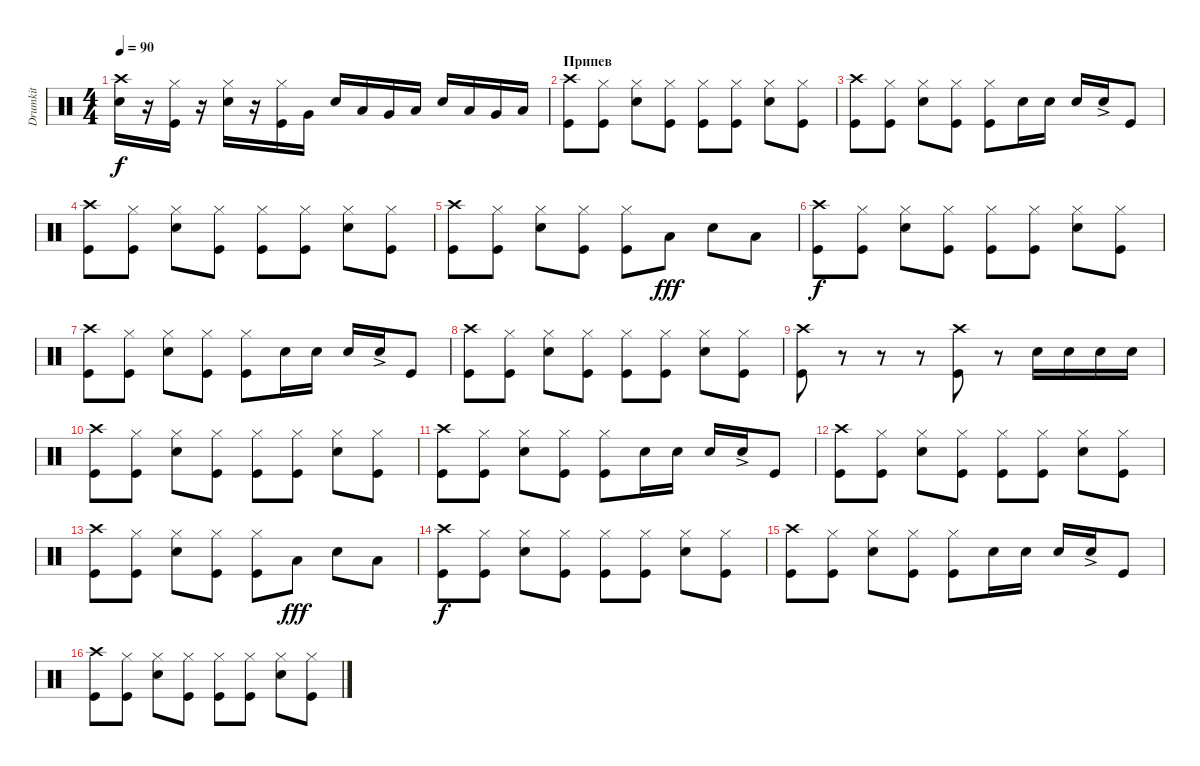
\track ("Drumkit" "Drumkit") {instrument percussion}
\staff {score}
\articulation defaults
\ts (4 4)
\tempo 90
\clef neutral
\ks c
("Crash high (hit)" "Snare (hit) 2").16{dy f} r.16 ("Hi-Hat (closed)" "Kick (hit)").16 r.16 ("Hi-Hat (closed)" "Snare (hit) 2").16 r.16 ("Hi-Hat (closed)" "Kick (hit)").16 "Very Low Tom (hit)".16 "Snare (hit) 2".16 "Low Tom (hit)".16 "Very Low Tom (hit)".16 "Low Tom (hit)".16 "Snare (hit) 2".16 "Low Tom (hit)".16 "Very Low Tom (hit)".16 "Low Floor Tom (hit)".16 |
\section ("" "Припев")
("Kick (hit)" "Crash high (hit)").8 ("Kick (hit)" "Hi-Hat (closed)").8 ("Snare (hit) 2" "Hi-Hat (closed)").8 ("Kick (hit)" "Hi-Hat (closed)").8 ("Kick (hit)" "Hi-Hat (closed)").8 ("Kick (hit)" "Hi-Hat (closed)").8 ("Snare (hit) 2" "Hi-Hat (closed)").8 ("Kick (hit)" "Hi-Hat (closed)").8 |
("Kick (hit)" "Crash high (hit)").8 ("Kick (hit)" "Hi-Hat (closed)").8 ("Snare (hit) 2" "Hi-Hat (closed)").8 ("Kick (hit)" "Hi-Hat (closed)").8 ("Kick (hit)" "Hi-Hat (closed)").8 "Snare (hit) 2".16 "Snare (hit) 2".16 "Snare (hit) 2".16 "Snare (hit) 2"{ac}.16 "Kick (hit)".8 |
("Kick (hit)" "Crash high (hit)").8 ("Kick (hit)" "Hi-Hat (closed)").8 ("Snare (hit) 2" "Hi-Hat (closed)").8 ("Kick (hit)" "Hi-Hat (closed)").8 ("Kick (hit)" "Hi-Hat (closed)").8 ("Kick (hit)" "Hi-Hat (closed)").8 ("Snare (hit) 2" "Hi-Hat (closed)").8 ("Kick (hit)" "Hi-Hat (closed)").8 |
("Kick (hit)" "Crash high (hit)").8 ("Kick (hit)" "Hi-Hat (closed)").8 ("Snare (hit) 2" "Hi-Hat (closed)").8 ("Kick (hit)" "Hi-Hat (closed)").8 ("Kick (hit)" "Hi-Hat (closed)").8 "Low Tom (hit)".8{dy fff} "Snare (hit) 2".8 "Low Tom (hit)".8 |
("Kick (hit)" "Crash high (hit)").8{dy f} ("Kick (hit)" "Hi-Hat (closed)").8 ("Snare (hit) 2" "Hi-Hat (closed)").8 ("Kick (hit)" "Hi-Hat (closed)").8 ("Kick (hit)" "Hi-Hat (closed)").8 ("Kick (hit)" "Hi-Hat (closed)").8 ("Snare (hit) 2" "Hi-Hat (closed)").8 ("Kick (hit)" "Hi-Hat (closed)").8 |
("Kick (hit)" "Crash high (hit)").8 ("Kick (hit)" "Hi-Hat (closed)").8 ("Snare (hit) 2" "Hi-Hat (closed)").8 ("Kick (hit)" "Hi-Hat (closed)").8 ("Kick (hit)" "Hi-Hat (closed)").8 "Snare (hit) 2".16 "Snare (hit) 2".16 "Snare (hit) 2".16 "Snare (hit) 2"{ac}.16 "Kick (hit)".8 |
("Kick (hit)" "Crash high (hit)").8 ("Kick (hit)" "Hi-Hat (closed)").8 ("Snare (hit) 2" "Hi-Hat (closed)").8 ("Kick (hit)" "Hi-Hat (closed)").8 ("Kick (hit)" "Hi-Hat (closed)").8 ("Kick (hit)" "Hi-Hat (closed)").8 ("Snare (hit) 2" "Hi-Hat (closed)").8 ("Kick (hit)" "Hi-Hat (closed)").8 |
("Kick (hit)" "Crash high (hit)").8 r.8 r.8 r.8 ("Kick (hit)" "Crash high (hit)").8 r.8 "Snare (hit) 2".16 "Snare (hit) 2".16 "Snare (hit) 2".16 "Snare (hit) 2".16 |
("Kick (hit)" "Crash high (hit)").8 ("Kick (hit)" "Hi-Hat (closed)").8 ("Snare (hit) 2" "Hi-Hat (closed)").8 ("Kick (hit)" "Hi-Hat (closed)").8 ("Kick (hit)" "Hi-Hat (closed)").8 ("Kick (hit)" "Hi-Hat (closed)").8 ("Snare (hit) 2" "Hi-Hat (closed)").8 ("Kick (hit)" "Hi-Hat (closed)").8 |
("Kick (hit)" "Crash high (hit)").8 ("Kick (hit)" "Hi-Hat (closed)").8 ("Snare (hit) 2" "Hi-Hat (closed)").8 ("Kick (hit)" "Hi-Hat (closed)").8 ("Kick (hit)" "Hi-Hat (closed)").8 "Snare (hit) 2".16 "Snare (hit) 2".16 "Snare (hit) 2".16 "Snare (hit) 2"{ac}.16 "Kick (hit)".8 |
("Kick (hit)" "Crash high (hit)").8 ("Kick (hit)" "Hi-Hat (closed)").8 ("Snare (hit) 2" "Hi-Hat (closed)").8 ("Kick (hit)" "Hi-Hat (closed)").8 ("Kick (hit)" "Hi-Hat (closed)").8 ("Kick (hit)" "Hi-Hat (closed)").8 ("Snare (hit) 2" "Hi-Hat (closed)").8 ("Kick (hit)" "Hi-Hat (closed)").8 |
("Kick (hit)" "Crash high (hit)").8 ("Kick (hit)" "Hi-Hat (closed)").8 ("Snare (hit) 2" "Hi-Hat (closed)").8 ("Kick (hit)" "Hi-Hat (closed)").8 ("Kick (hit)" "Hi-Hat (closed)").8 "Low Tom (hit)".8{dy fff} "Snare (hit) 2".8 "Low Tom (hit)".8 |
("Kick (hit)" "Crash high (hit)").8{dy f} ("Kick (hit)" "Hi-Hat (closed)").8 ("Snare (hit) 2" "Hi-Hat (closed)").8 ("Kick (hit)" "Hi-Hat (closed)").8 ("Kick (hit)" "Hi-Hat (closed)").8 ("Kick (hit)" "Hi-Hat (closed)").8 ("Snare (hit) 2" "Hi-Hat (closed)").8 ("Kick (hit)" "Hi-Hat (closed)").8 |
("Kick (hit)" "Crash high (hit)").8 ("Kick (hit)" "Hi-Hat (closed)").8 ("Snare (hit) 2" "Hi-Hat (closed)").8 ("Kick (hit)" "Hi-Hat (closed)").8 ("Kick (hit)" "Hi-Hat (closed)").8 "Snare (hit) 2".16 "Snare (hit) 2".16 "Snare (hit) 2".16 "Snare (hit) 2"{ac}.16 "Kick (hit)".8 |
("Kick (hit)" "Crash high (hit)").8 ("Kick (hit)" "Hi-Hat (closed)").8 ("Snare (hit) 2" "Hi-Hat (closed)").8 ("Kick (hit)" "Hi-Hat (closed)").8 ("Kick (hit)" "Hi-Hat (closed)").8 ("Kick (hit)" "Hi-Hat (closed)").8 ("Snare (hit) 2" "Hi-Hat (closed)").8 ("Kick (hit)" "Hi-Hat (closed)").8
